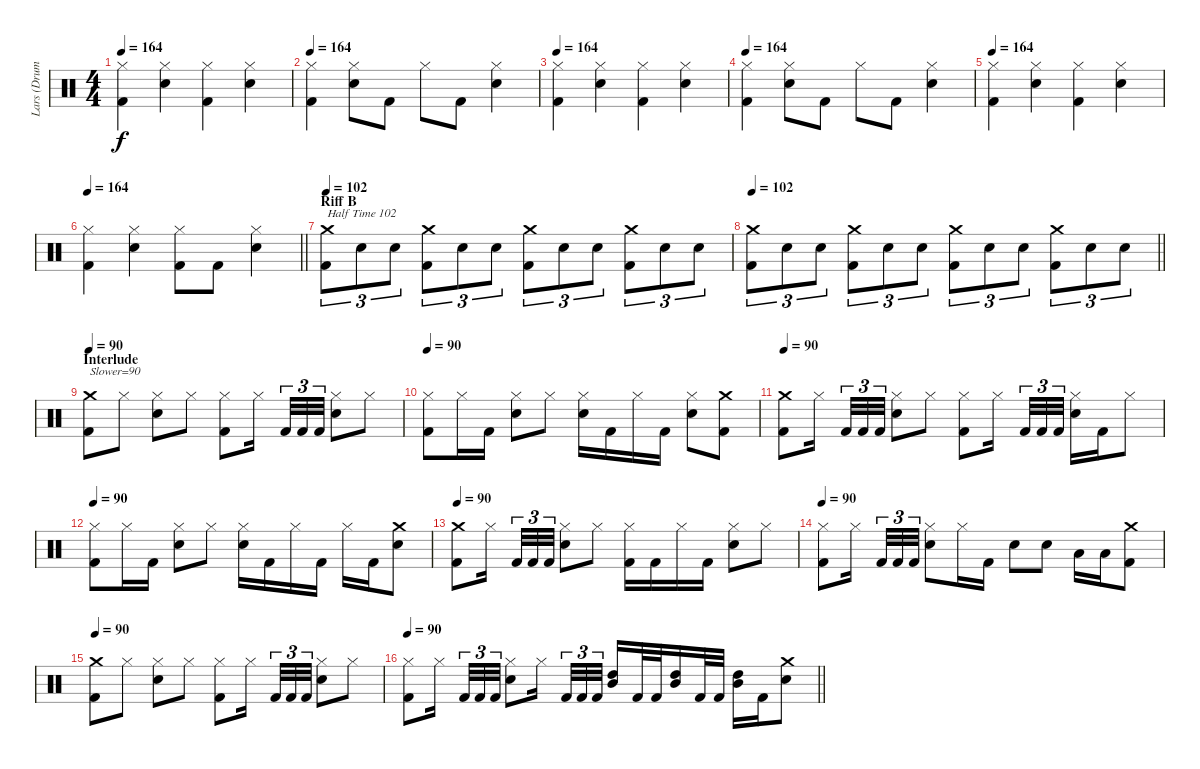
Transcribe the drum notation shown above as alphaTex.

\track ("Lars (Drums)" "Lars (Drum") {instrument percussion}
\staff {score}
\articulation defaults
\ts (4 4)
\tempo 164
\clef neutral
\ks c
("Hi-Hat (closed)" "Kick (hit) 2").4{dy f} ("Snare (hit) 2" "Hi-Hat (closed)").4 ("Kick (hit) 2" "Hi-Hat (closed)").4 ("Hi-Hat (closed)" "Snare (hit) 2").4 |
\tempo 164
("Kick (hit) 2" "Hi-Hat (closed)").4 ("Snare (hit) 2" "Hi-Hat (closed)").8 "Kick (hit) 2".8 "Hi-Hat (closed)".8 "Kick (hit) 2".8 ("Snare (hit) 2" "Hi-Hat (closed)").4 |
\tempo 164
("Hi-Hat (closed)" "Kick (hit) 2").4 ("Snare (hit) 2" "Hi-Hat (closed)").4 ("Kick (hit) 2" "Hi-Hat (closed)").4 ("Hi-Hat (closed)" "Snare (hit) 2").4 |
\tempo 164
("Kick (hit) 2" "Hi-Hat (closed)").4 ("Snare (hit) 2" "Hi-Hat (closed)").8 "Kick (hit) 2".8 "Hi-Hat (closed)".8 "Kick (hit) 2".8 ("Snare (hit) 2" "Hi-Hat (closed)").4 |
\tempo 164
("Hi-Hat (closed)" "Kick (hit) 2").4 ("Snare (hit) 2" "Hi-Hat (closed)").4 ("Kick (hit) 2" "Hi-Hat (closed)").4 ("Hi-Hat (closed)" "Snare (hit) 2").4 |
\tempo 164
\barLineRight lightlight
("Kick (hit) 2" "Hi-Hat (closed)").4 ("Snare (hit) 2" "Hi-Hat (closed)").4 ("Kick (hit) 2" "Hi-Hat (closed)").8 "Kick (hit) 2".8 ("Snare (hit) 2" "Hi-Hat (closed)").4 |
\section ("" "Riff B")
\tempo 102
("Kick (hit) 2" "Crash medium (hit)").8{tu (3 2) txt "Half Time 102"} "Snare (hit) 2".8{tu (3 2)} "Snare (hit) 2".8{tu (3 2)} ("Kick (hit) 2" "Crash medium (hit)").8{tu (3 2)} "Snare (hit) 2".8{tu (3 2)} "Snare (hit) 2".8{tu (3 2)} ("Kick (hit) 2" "Crash medium (hit)").8{tu (3 2)} "Snare (hit) 2".8{tu (3 2)} "Snare (hit) 2".8{tu (3 2)} ("Kick (hit) 2" "Crash medium (hit)").8{tu (3 2)} "Snare (hit) 2".8{tu (3 2)} "Snare (hit) 2".8{tu (3 2)} |
\tempo 102
\barLineRight lightlight
("Kick (hit) 2" "Crash medium (hit)").8{tu (3 2)} "Snare (hit) 2".8{tu (3 2)} "Snare (hit) 2".8{tu (3 2)} ("Kick (hit) 2" "Crash medium (hit)").8{tu (3 2)} "Snare (hit) 2".8{tu (3 2)} "Snare (hit) 2".8{tu (3 2)} ("Kick (hit) 2" "Crash medium (hit)").8{tu (3 2)} "Snare (hit) 2".8{tu (3 2)} "Snare (hit) 2".8{tu (3 2)} ("Kick (hit) 2" "Crash medium (hit)").8{tu (3 2)} "Snare (hit) 2".8{tu (3 2)} "Snare (hit) 2".8{tu (3 2)} |
\section ("" "Interlude")
\tempo 90
("Crash medium (hit)" "Kick (hit) 2").8{txt "Slower=90"} "Hi-Hat (closed)".8 ("Snare (hit) 2" "Hi-Hat (closed)").8 "Hi-Hat (closed)".8 ("Hi-Hat (closed)" "Kick (hit) 2").8 "Hi-Hat (closed)".16{beam splitsecondary} "Kick (hit) 2".32{tu (3 2)} "Kick (hit) 2".32{tu (3 2)} "Kick (hit) 2".32{tu (3 2)} ("Snare (hit) 2" "Hi-Hat (closed)").8 "Hi-Hat (closed)".8 |
\tempo 90
("Hi-Hat (closed)" "Kick (hit) 2").8 "Hi-Hat (closed)".16 "Kick (hit) 2".16 ("Snare (hit) 2" "Hi-Hat (closed)").8 "Hi-Hat (closed)".8 ("Snare (hit) 2" "Hi-Hat (closed)").16 "Kick (hit) 2".16 "Hi-Hat (closed)".16 "Kick (hit) 2".16 ("Snare (hit) 2" "Hi-Hat (closed)").8 ("Crash medium (hit)" "Kick (hit) 2").8 |
\tempo 90
("Crash medium (hit)" "Kick (hit) 2").8 "Hi-Hat (closed)".16{beam splitsecondary} "Kick (hit) 2".32{tu (3 2)} "Kick (hit) 2".32{tu (3 2)} "Kick (hit) 2".32{tu (3 2)} ("Snare (hit) 2" "Hi-Hat (closed)").8 "Hi-Hat (closed)".8 ("Hi-Hat (closed)" "Kick (hit) 2").8 "Hi-Hat (closed)".16{beam splitsecondary} "Kick (hit) 2".32{tu (3 2)} "Kick (hit) 2".32{tu (3 2)} "Kick (hit) 2".32{tu (3 2)} ("Snare (hit) 2" "Hi-Hat (closed)").16 "Kick (hit) 2".16 "Hi-Hat (closed)".8 |
\tempo 90
("Kick (hit) 2" "Hi-Hat (closed)").8 "Hi-Hat (closed)".16 "Kick (hit) 2".16 ("Snare (hit) 2" "Hi-Hat (closed)").8 "Hi-Hat (closed)".8 ("Snare (hit) 2" "Hi-Hat (closed)").16 "Kick (hit) 2".16 "Hi-Hat (closed)".16 "Kick (hit) 2".16 "Hi-Hat (closed)".16 "Kick (hit) 2".16 ("Crash medium (hit)" "Snare (hit) 2").8 |
\tempo 90
("Crash medium (hit)" "Kick (hit) 2").8 "Hi-Hat (closed)".16{beam splitsecondary} "Kick (hit) 2".32{tu (3 2)} "Kick (hit) 2".32{tu (3 2)} "Kick (hit) 2".32{tu (3 2)} ("Snare (hit) 2" "Hi-Hat (closed)").8 "Hi-Hat (closed)".8 ("Kick (hit) 2" "Hi-Hat (closed)").16 "Kick (hit) 2".16 "Hi-Hat (closed)".16 "Kick (hit) 2".16 ("Snare (hit) 2" "Hi-Hat (closed)").8 "Hi-Hat (closed)".8 |
\tempo 90
("Hi-Hat (closed)" "Kick (hit) 2").8 "Hi-Hat (closed)".16{beam splitsecondary} "Kick (hit) 2".32{tu (3 2)} "Kick (hit) 2".32{tu (3 2)} "Kick (hit) 2".32{tu (3 2)} ("Snare (hit) 2" "Hi-Hat (closed)").8 "Hi-Hat (closed)".16 "Kick (hit) 2".16 "Snare (hit) 2".8 "Snare (hit) 2".8 "Low Tom (hit)".16 "Low Tom (hit)".16 ("Crash medium (hit)" "Kick (hit) 2").8 |
\tempo 90
("Kick (hit) 2" "Crash medium (hit)").8 "Hi-Hat (closed)".8 ("Snare (hit) 2" "Hi-Hat (closed)").8 "Hi-Hat (closed)".8 ("Hi-Hat (closed)" "Kick (hit) 2").8 "Hi-Hat (closed)".16{beam splitsecondary} "Kick (hit) 2".32{tu (3 2)} "Kick (hit) 2".32{tu (3 2)} "Kick (hit) 2".32{tu (3 2)} ("Snare (hit) 2" "Hi-Hat (closed)").8 "Hi-Hat (closed)".8 |
\tempo 90
\barLineRight lightlight
("Hi-Hat (closed)" "Kick (hit) 2").8 "Hi-Hat (closed)".16{beam splitsecondary} "Kick (hit) 2".32{tu (3 2)} "Kick (hit) 2".32{tu (3 2)} "Kick (hit) 2".32{tu (3 2)} ("Snare (hit) 2" "Hi-Hat (closed)").8 "Hi-Hat (closed)".16{beam splitsecondary} "Kick (hit) 2".32{tu (3 2)} "Kick (hit) 2".32{tu (3 2)} "Kick (hit) 2".32{tu (3 2)} ("High Tom (hit)" "Mid Tom (hit)").16 "Kick (hit) 2".32 "Kick (hit) 2".32 ("High Tom (hit)" "Mid Tom (hit)").16 "Kick (hit) 2".32 "Kick (hit) 2".32 ("High Tom (hit)" "Mid Tom (hit)").16 "Kick (hit) 2".16 ("Crash medium (hit)" "Snare (hit) 2").8
